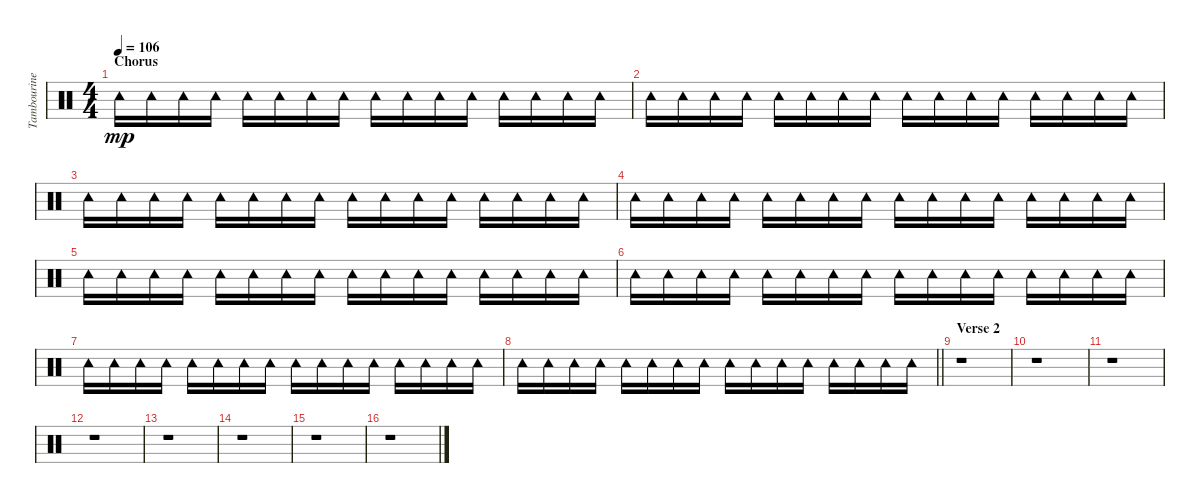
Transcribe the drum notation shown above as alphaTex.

\track ("Tambourine" "Tambourine") {instrument percussion}
\staff {score}
\articulation defaults
\ts (4 4)
\section ("" "Chorus ")
\tempo 106
\clef neutral
\ks c "Tambourine (hit)".16{dy mp} "Tambourine (hit)".16 "Tambourine (hit)".16 "Tambourine (hit)".16 "Tambourine (hit)".16 "Tambourine (hit)".16 "Tambourine (hit)".16 "Tambourine (hit)".16 "Tambourine (hit)".16 "Tambourine (hit)".16 "Tambourine (hit)".16 "Tambourine (hit)".16 "Tambourine (hit)".16 "Tambourine (hit)".16 "Tambourine (hit)".16 "Tambourine (hit)".16
|
"Tambourine (hit)".16 "Tambourine (hit)".16 "Tambourine (hit)".16 "Tambourine (hit)".16 "Tambourine (hit)".16 "Tambourine (hit)".16 "Tambourine (hit)".16 "Tambourine (hit)".16 "Tambourine (hit)".16 "Tambourine (hit)".16 "Tambourine (hit)".16 "Tambourine (hit)".16 "Tambourine (hit)".16 "Tambourine (hit)".16 "Tambourine (hit)".16 "Tambourine (hit)".16 |
"Tambourine (hit)".16 "Tambourine (hit)".16 "Tambourine (hit)".16 "Tambourine (hit)".16 "Tambourine (hit)".16 "Tambourine (hit)".16 "Tambourine (hit)".16 "Tambourine (hit)".16 "Tambourine (hit)".16 "Tambourine (hit)".16 "Tambourine (hit)".16 "Tambourine (hit)".16 "Tambourine (hit)".16 "Tambourine (hit)".16 "Tambourine (hit)".16 "Tambourine (hit)".16 |
"Tambourine (hit)".16 "Tambourine (hit)".16 "Tambourine (hit)".16 "Tambourine (hit)".16 "Tambourine (hit)".16 "Tambourine (hit)".16 "Tambourine (hit)".16 "Tambourine (hit)".16 "Tambourine (hit)".16 "Tambourine (hit)".16 "Tambourine (hit)".16 "Tambourine (hit)".16 "Tambourine (hit)".16 "Tambourine (hit)".16 "Tambourine (hit)".16 "Tambourine (hit)".16 |
"Tambourine (hit)".16 "Tambourine (hit)".16 "Tambourine (hit)".16 "Tambourine (hit)".16 "Tambourine (hit)".16 "Tambourine (hit)".16 "Tambourine (hit)".16 "Tambourine (hit)".16 "Tambourine (hit)".16 "Tambourine (hit)".16 "Tambourine (hit)".16 "Tambourine (hit)".16 "Tambourine (hit)".16 "Tambourine (hit)".16 "Tambourine (hit)".16 "Tambourine (hit)".16 |
"Tambourine (hit)".16 "Tambourine (hit)".16 "Tambourine (hit)".16 "Tambourine (hit)".16 "Tambourine (hit)".16 "Tambourine (hit)".16 "Tambourine (hit)".16 "Tambourine (hit)".16 "Tambourine (hit)".16 "Tambourine (hit)".16 "Tambourine (hit)".16 "Tambourine (hit)".16 "Tambourine (hit)".16 "Tambourine (hit)".16 "Tambourine (hit)".16 "Tambourine (hit)".16 |
"Tambourine (hit)".16 "Tambourine (hit)".16 "Tambourine (hit)".16 "Tambourine (hit)".16 "Tambourine (hit)".16 "Tambourine (hit)".16 "Tambourine (hit)".16 "Tambourine (hit)".16 "Tambourine (hit)".16 "Tambourine (hit)".16 "Tambourine (hit)".16 "Tambourine (hit)".16 "Tambourine (hit)".16 "Tambourine (hit)".16 "Tambourine (hit)".16 "Tambourine (hit)".16 |
\barLineRight lightlight "Tambourine (hit)".16 "Tambourine (hit)".16 "Tambourine (hit)".16 "Tambourine (hit)".16 "Tambourine (hit)".16 "Tambourine (hit)".16 "Tambourine (hit)".16 "Tambourine (hit)".16 "Tambourine (hit)".16 "Tambourine (hit)".16 "Tambourine (hit)".16 "Tambourine (hit)".16 "Tambourine (hit)".16 "Tambourine (hit)".16 "Tambourine (hit)".16 "Tambourine (hit)".16
|
\section ("" "Verse 2")
r.1 |
r.1 |
r.1 |
r.1 |
r.1 |
r.1 |
r.1 |
r.1
